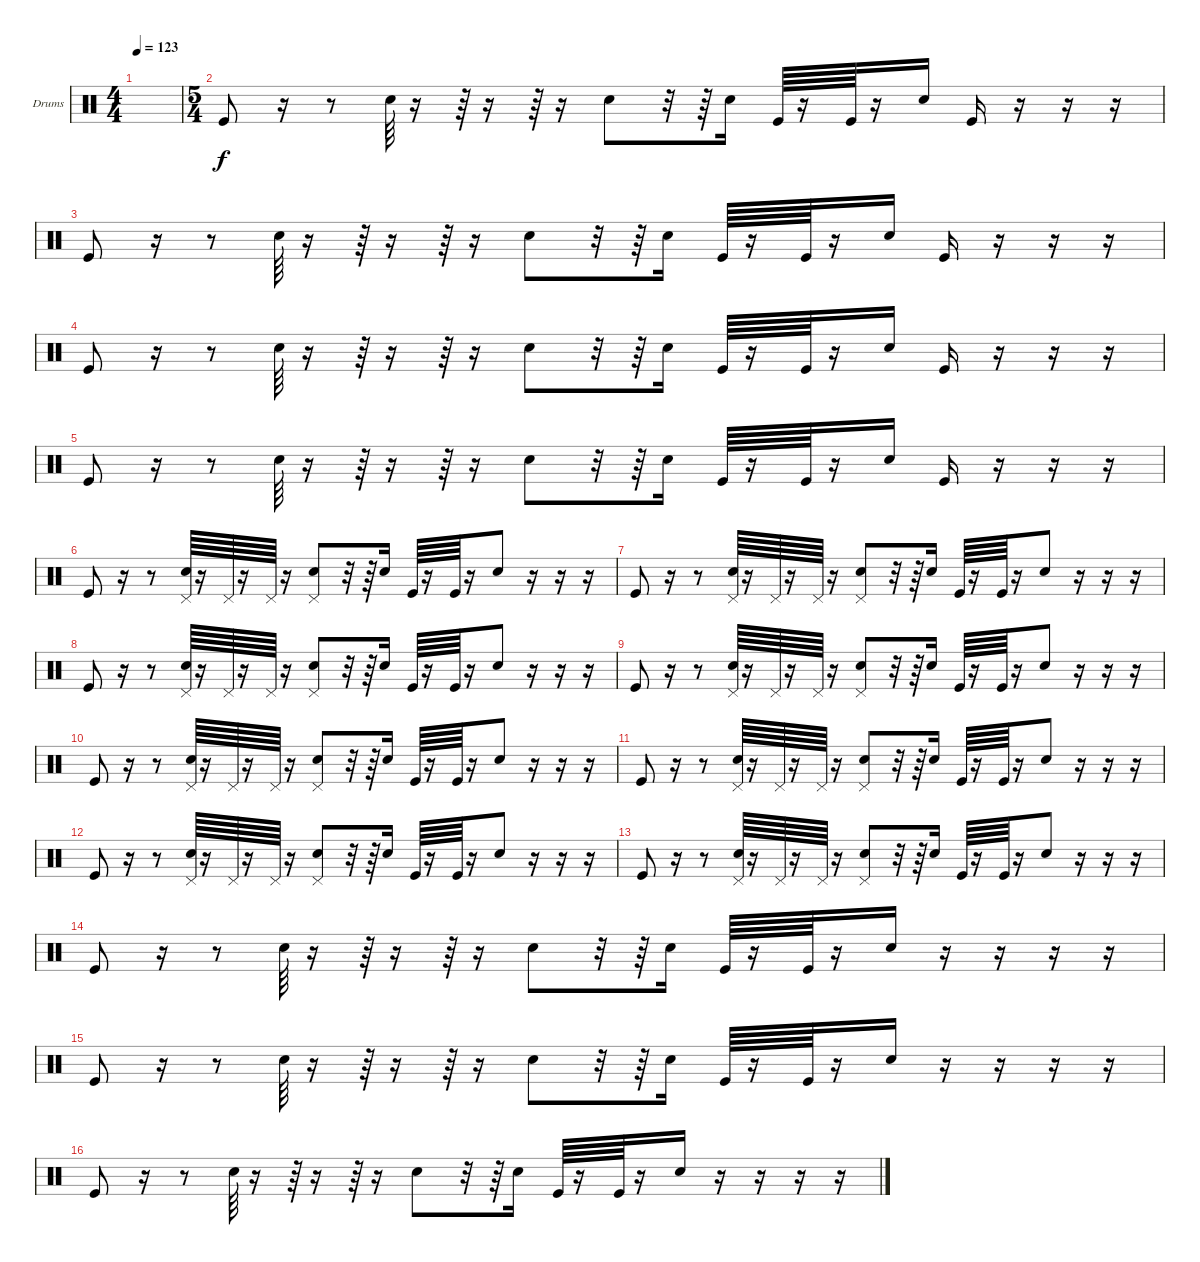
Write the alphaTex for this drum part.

\defaultSystemsLayout 4
\bracketExtendMode groupsimilarinstruments
\firstSystemTrackNameOrientation horizontal
\otherSystemsTrackNameOrientation horizontal
\track ("Drumkit" "Drums") {instrument percussion}
\staff {score}
\articulation defaults
\ts (4 4)
\tempo 123
\clef neutral
\ks c
|
\ts (5 4)
"Kick (hit)".8 r.16 r.8 "Snare (hit) 2".64 r.16 r.64 r.16 r.64 r.16 "Snare (hit) 2".8 r.32 r.64 "Snare (hit) 2".16 "Kick (hit)".64 r.16 "Kick (hit)".64 r.16 "Snare (hit) 2".16 "Kick (hit)".16 r.16 r.16 r.16 |
"Kick (hit)".8 r.16 r.8 "Snare (hit) 2".64 r.16 r.64 r.16 r.64 r.16 "Snare (hit) 2".8 r.32 r.64 "Snare (hit) 2".16 "Kick (hit)".64 r.16 "Kick (hit)".64 r.16 "Snare (hit) 2".16 "Kick (hit)".16 r.16 r.16 r.16 |
"Kick (hit)".8 r.16 r.8 "Snare (hit) 2".64 r.16 r.64 r.16 r.64 r.16 "Snare (hit) 2".8 r.32 r.64 "Snare (hit) 2".16 "Kick (hit)".64 r.16 "Kick (hit)".64 r.16 "Snare (hit) 2".16 "Kick (hit)".16 r.16 r.16 r.16 |
"Kick (hit)".8 r.16 r.8 "Snare (hit) 2".64 r.16 r.64 r.16 r.64 r.16 "Snare (hit) 2".8 r.32 r.64 "Snare (hit) 2".16 "Kick (hit)".64 r.16 "Kick (hit)".64 r.16 "Snare (hit) 2".16 "Kick (hit)".16 r.16 r.16 r.16 |
"Kick (hit)".8 r.16 r.8 ("Snare (hit) 2" "Pedal Hi-Hat (hit)").64 r.16 "Pedal Hi-Hat (hit)".64 r.16 "Pedal Hi-Hat (hit)".64 r.16 ("Snare (hit) 2" "Pedal Hi-Hat (hit)").8 r.32 r.64 "Snare (hit) 2".16 "Kick (hit)".64 r.16 "Kick (hit)".64 r.16 "Snare (hit) 2".8 r.16 r.16 r.16 |
"Kick (hit)".8 r.16 r.8 ("Snare (hit) 2" "Pedal Hi-Hat (hit)").64 r.16 "Pedal Hi-Hat (hit)".64 r.16 "Pedal Hi-Hat (hit)".64 r.16 ("Snare (hit) 2" "Pedal Hi-Hat (hit)").8 r.32 r.64 "Snare (hit) 2".16 "Kick (hit)".64 r.16 "Kick (hit)".64 r.16 "Snare (hit) 2".8 r.16 r.16 r.16 |
"Kick (hit)".8 r.16 r.8 ("Snare (hit) 2" "Pedal Hi-Hat (hit)").64 r.16 "Pedal Hi-Hat (hit)".64 r.16 "Pedal Hi-Hat (hit)".64 r.16 ("Snare (hit) 2" "Pedal Hi-Hat (hit)").8 r.32 r.64 "Snare (hit) 2".16 "Kick (hit)".64 r.16 "Kick (hit)".64 r.16 "Snare (hit) 2".8 r.16 r.16 r.16 |
"Kick (hit)".8 r.16 r.8 ("Snare (hit) 2" "Pedal Hi-Hat (hit)").64 r.16 "Pedal Hi-Hat (hit)".64 r.16 "Pedal Hi-Hat (hit)".64 r.16 ("Snare (hit) 2" "Pedal Hi-Hat (hit)").8 r.32 r.64 "Snare (hit) 2".16 "Kick (hit)".64 r.16 "Kick (hit)".64 r.16 "Snare (hit) 2".8 r.16 r.16 r.16 |
"Kick (hit)".8 r.16 r.8 ("Snare (hit) 2" "Pedal Hi-Hat (hit)").64 r.16 "Pedal Hi-Hat (hit)".64 r.16 "Pedal Hi-Hat (hit)".64 r.16 ("Snare (hit) 2" "Pedal Hi-Hat (hit)").8 r.32 r.64 "Snare (hit) 2".16 "Kick (hit)".64 r.16 "Kick (hit)".64 r.16 "Snare (hit) 2".8 r.16 r.16 r.16 |
"Kick (hit)".8 r.16 r.8 ("Snare (hit) 2" "Pedal Hi-Hat (hit)").64 r.16 "Pedal Hi-Hat (hit)".64 r.16 "Pedal Hi-Hat (hit)".64 r.16 ("Snare (hit) 2" "Pedal Hi-Hat (hit)").8 r.32 r.64 "Snare (hit) 2".16 "Kick (hit)".64 r.16 "Kick (hit)".64 r.16 "Snare (hit) 2".8 r.16 r.16 r.16 |
"Kick (hit)".8 r.16 r.8 ("Snare (hit) 2" "Pedal Hi-Hat (hit)").64 r.16 "Pedal Hi-Hat (hit)".64 r.16 "Pedal Hi-Hat (hit)".64 r.16 ("Snare (hit) 2" "Pedal Hi-Hat (hit)").8 r.32 r.64 "Snare (hit) 2".16 "Kick (hit)".64 r.16 "Kick (hit)".64 r.16 "Snare (hit) 2".8 r.16 r.16 r.16 |
"Kick (hit)".8 r.16 r.8 ("Snare (hit) 2" "Pedal Hi-Hat (hit)").64 r.16 "Pedal Hi-Hat (hit)".64 r.16 "Pedal Hi-Hat (hit)".64 r.16 ("Snare (hit) 2" "Pedal Hi-Hat (hit)").8 r.32 r.64 "Snare (hit) 2".16 "Kick (hit)".64 r.16 "Kick (hit)".64 r.16 "Snare (hit) 2".8 r.16 r.16 r.16 |
"Kick (hit)".8 r.16 r.8 "Snare (hit) 2".64 r.16 r.64 r.16 r.64 r.16 "Snare (hit) 2".8 r.32 r.64 "Snare (hit) 2".16 "Kick (hit)".64 r.16 "Kick (hit)".64 r.16 "Snare (hit) 2".16 r.16 r.16 r.16 r.16 |
"Kick (hit)".8 r.16 r.8 "Snare (hit) 2".64 r.16 r.64 r.16 r.64 r.16 "Snare (hit) 2".8 r.32 r.64 "Snare (hit) 2".16 "Kick (hit)".64 r.16 "Kick (hit)".64 r.16 "Snare (hit) 2".16 r.16 r.16 r.16 r.16 |
"Kick (hit)".8 r.16 r.8 "Snare (hit) 2".64 r.16 r.64 r.16 r.64 r.16 "Snare (hit) 2".8 r.32 r.64 "Snare (hit) 2".16 "Kick (hit)".64 r.16 "Kick (hit)".64 r.16 "Snare (hit) 2".16 r.16 r.16 r.16 r.16
